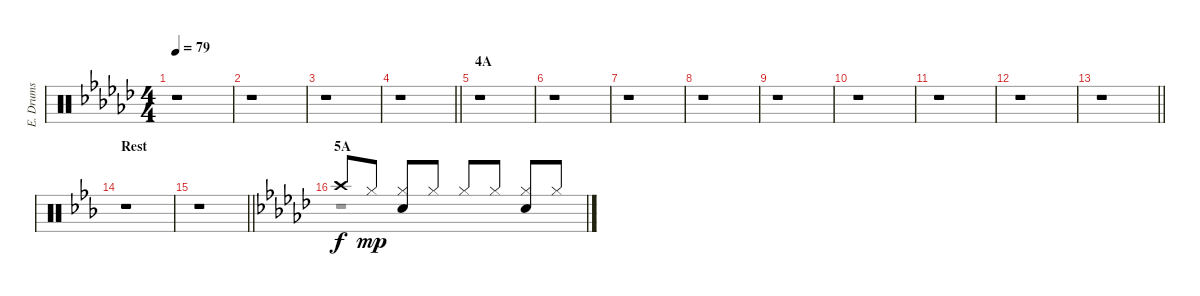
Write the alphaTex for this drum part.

\track ("E. Drums" "E. Drums") {instrument percussion}
\staff {score}
\articulation defaults
\voice
\ts (4 4)
\tempo 79
\clef neutral
\ks gb
r.1{dy mp} |
r.1 |
r.1 |
\barLineRight lightlight
r.1 |
\section ("" "4A")
r.1 |
r.1 |
r.1 |
r.1 |
r.1 |
r.1 |
r.1 |
r.1 |
\barLineRight lightlight
r.1 |
\section ("" "Rest")
\ks eb
r.1 |
\barLineRight lightlight
r.1 |
\section ("" "5A")
\ks gb "Crash high (hit)".8{dy f} "Hi-Hat (closed)".8{dy mp}
("Hi-Hat (closed)" "Electric Snare (hit)").8 "Hi-Hat (closed)".8 "Hi-Hat (closed)".8 "Hi-Hat (closed)".8 ("Hi-Hat (closed)" "Electric Snare (hit)").8 "Hi-Hat (closed)".8
\voice
\clef neutral
\ottava regular
\simile none
\ks gb
r.1{dy f} |
r.1 |
r.1 |
\barLineRight lightlight
r.1 |
r.1 |
r.1 |
r.1 |
r.1 |
r.1 |
r.1 |
r.1 |
r.1 |
\barLineRight lightlight
r.1 |
\ks eb
r.1 |
\barLineRight lightlight
r.1 |
\ks gb
r.1
